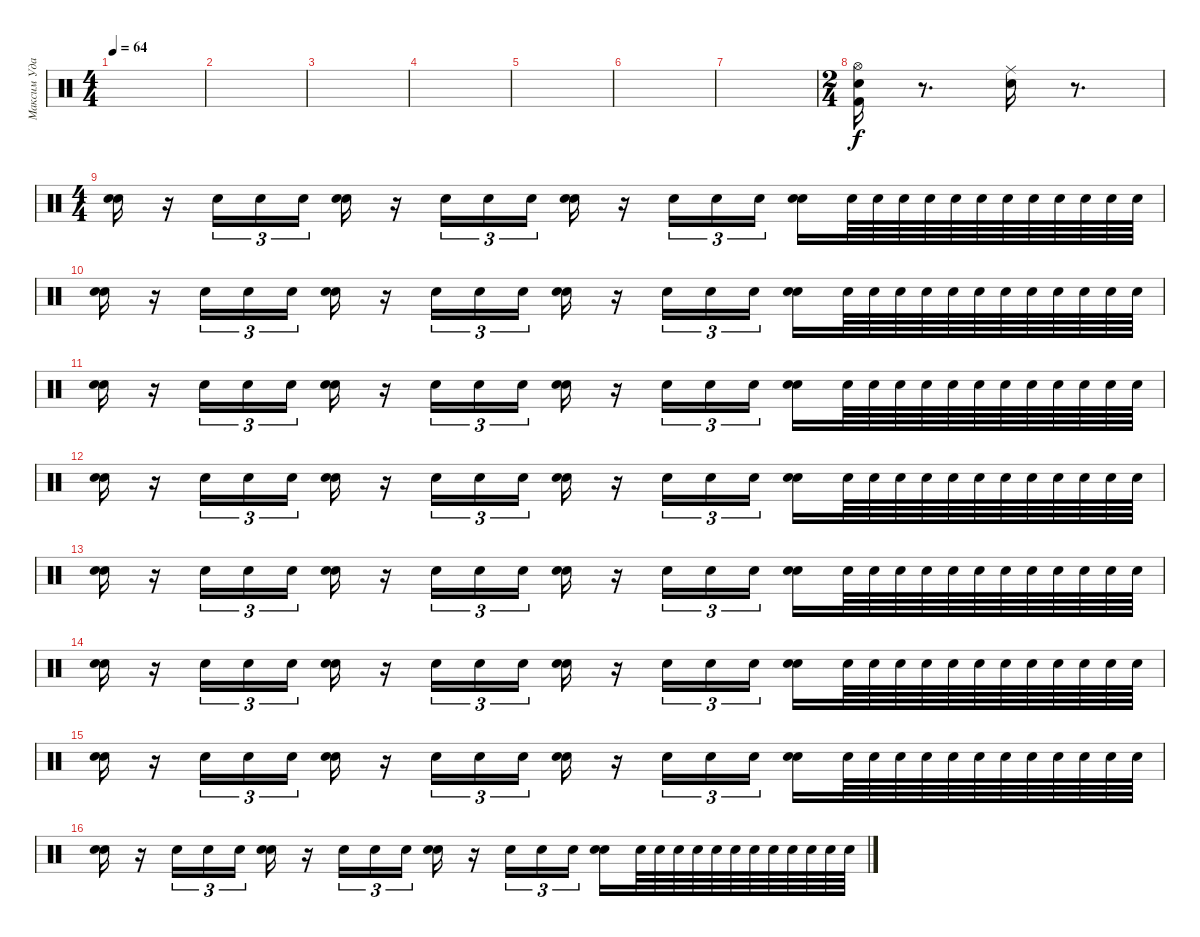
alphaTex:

\track ("Максим Удалов" "Максим Уда") {instrument percussion}
\staff {score}
\articulation defaults
\ts (4 4)
\tempo 64
\clef neutral
\ks c
|
|
|
|
|
|
|
\ts (2 4)
("Hi-Hat (open)" "Electric Snare (hit)" "Kick (hit) 2").16 r.8{d} ("Electric Snare (hit)" "Ride (middle)").16 r.8{d} |
\ts (4 4)
("Electric Snare (hit)" "Electric Snare (hit)").16 r.16 "Electric Snare (hit)".16{tu (3 2)} "Electric Snare (hit)".16{tu (3 2)} "Electric Snare (hit)".16{tu (3 2)} ("Electric Snare (hit)" "Electric Snare (hit)").16 r.16 "Electric Snare (hit)".16{tu (3 2)} "Electric Snare (hit)".16{tu (3 2)} "Electric Snare (hit)".16{tu (3 2)} ("Electric Snare (hit)" "Electric Snare (hit)").16 r.16 "Electric Snare (hit)".16{tu (3 2)} "Electric Snare (hit)".16{tu (3 2)} "Electric Snare (hit)".16{tu (3 2)} ("Electric Snare (hit)" "Electric Snare (hit)").16 "Snare (hit) 2".64 "Snare (hit) 2".64 "Snare (hit) 2".64 "Snare (hit) 2".64 "Snare (hit) 2".64 "Snare (hit) 2".64 "Snare (hit) 2".64 "Snare (hit) 2".64 "Snare (hit) 2".64 "Snare (hit) 2".64 "Snare (hit) 2".64 "Snare (hit) 2".64 |
("Electric Snare (hit)" "Electric Snare (hit)").16 r.16 "Electric Snare (hit)".16{tu (3 2)} "Electric Snare (hit)".16{tu (3 2)} "Electric Snare (hit)".16{tu (3 2)} ("Electric Snare (hit)" "Electric Snare (hit)").16 r.16 "Electric Snare (hit)".16{tu (3 2)} "Electric Snare (hit)".16{tu (3 2)} "Electric Snare (hit)".16{tu (3 2)} ("Electric Snare (hit)" "Electric Snare (hit)").16 r.16 "Electric Snare (hit)".16{tu (3 2)} "Electric Snare (hit)".16{tu (3 2)} "Electric Snare (hit)".16{tu (3 2)} ("Electric Snare (hit)" "Electric Snare (hit)").16 "Snare (hit) 2".64 "Snare (hit) 2".64 "Snare (hit) 2".64 "Snare (hit) 2".64 "Snare (hit) 2".64 "Snare (hit) 2".64 "Snare (hit) 2".64 "Snare (hit) 2".64 "Snare (hit) 2".64 "Snare (hit) 2".64 "Snare (hit) 2".64 "Snare (hit) 2".64 |
("Electric Snare (hit)" "Electric Snare (hit)").16 r.16 "Electric Snare (hit)".16{tu (3 2)} "Electric Snare (hit)".16{tu (3 2)} "Electric Snare (hit)".16{tu (3 2)} ("Electric Snare (hit)" "Electric Snare (hit)").16 r.16 "Electric Snare (hit)".16{tu (3 2)} "Electric Snare (hit)".16{tu (3 2)} "Electric Snare (hit)".16{tu (3 2)} ("Electric Snare (hit)" "Electric Snare (hit)").16 r.16 "Electric Snare (hit)".16{tu (3 2)} "Electric Snare (hit)".16{tu (3 2)} "Electric Snare (hit)".16{tu (3 2)} ("Electric Snare (hit)" "Electric Snare (hit)").16 "Snare (hit) 2".64 "Snare (hit) 2".64 "Snare (hit) 2".64 "Snare (hit) 2".64 "Snare (hit) 2".64 "Snare (hit) 2".64 "Snare (hit) 2".64 "Snare (hit) 2".64 "Snare (hit) 2".64 "Snare (hit) 2".64 "Snare (hit) 2".64 "Snare (hit) 2".64 |
("Electric Snare (hit)" "Electric Snare (hit)").16 r.16 "Electric Snare (hit)".16{tu (3 2)} "Electric Snare (hit)".16{tu (3 2)} "Electric Snare (hit)".16{tu (3 2)} ("Electric Snare (hit)" "Electric Snare (hit)").16 r.16 "Electric Snare (hit)".16{tu (3 2)} "Electric Snare (hit)".16{tu (3 2)} "Electric Snare (hit)".16{tu (3 2)} ("Electric Snare (hit)" "Electric Snare (hit)").16 r.16 "Electric Snare (hit)".16{tu (3 2)} "Electric Snare (hit)".16{tu (3 2)} "Electric Snare (hit)".16{tu (3 2)} ("Electric Snare (hit)" "Electric Snare (hit)").16 "Snare (hit) 2".64 "Snare (hit) 2".64 "Snare (hit) 2".64 "Snare (hit) 2".64 "Snare (hit) 2".64 "Snare (hit) 2".64 "Snare (hit) 2".64 "Snare (hit) 2".64 "Snare (hit) 2".64 "Snare (hit) 2".64 "Snare (hit) 2".64 "Snare (hit) 2".64 |
("Electric Snare (hit)" "Electric Snare (hit)").16 r.16 "Electric Snare (hit)".16{tu (3 2)} "Electric Snare (hit)".16{tu (3 2)} "Electric Snare (hit)".16{tu (3 2)} ("Electric Snare (hit)" "Electric Snare (hit)").16 r.16 "Electric Snare (hit)".16{tu (3 2)} "Electric Snare (hit)".16{tu (3 2)} "Electric Snare (hit)".16{tu (3 2)} ("Electric Snare (hit)" "Electric Snare (hit)").16 r.16 "Electric Snare (hit)".16{tu (3 2)} "Electric Snare (hit)".16{tu (3 2)} "Electric Snare (hit)".16{tu (3 2)} ("Electric Snare (hit)" "Electric Snare (hit)").16 "Snare (hit) 2".64 "Snare (hit) 2".64 "Snare (hit) 2".64 "Snare (hit) 2".64 "Snare (hit) 2".64 "Snare (hit) 2".64 "Snare (hit) 2".64 "Snare (hit) 2".64 "Snare (hit) 2".64 "Snare (hit) 2".64 "Snare (hit) 2".64 "Snare (hit) 2".64 |
("Electric Snare (hit)" "Electric Snare (hit)").16 r.16 "Electric Snare (hit)".16{tu (3 2)} "Electric Snare (hit)".16{tu (3 2)} "Electric Snare (hit)".16{tu (3 2)} ("Electric Snare (hit)" "Electric Snare (hit)").16 r.16 "Electric Snare (hit)".16{tu (3 2)} "Electric Snare (hit)".16{tu (3 2)} "Electric Snare (hit)".16{tu (3 2)} ("Electric Snare (hit)" "Electric Snare (hit)").16 r.16 "Electric Snare (hit)".16{tu (3 2)} "Electric Snare (hit)".16{tu (3 2)} "Electric Snare (hit)".16{tu (3 2)} ("Electric Snare (hit)" "Electric Snare (hit)").16 "Snare (hit) 2".64 "Snare (hit) 2".64 "Snare (hit) 2".64 "Snare (hit) 2".64 "Snare (hit) 2".64 "Snare (hit) 2".64 "Snare (hit) 2".64 "Snare (hit) 2".64 "Snare (hit) 2".64 "Snare (hit) 2".64 "Snare (hit) 2".64 "Snare (hit) 2".64 |
("Electric Snare (hit)" "Electric Snare (hit)").16 r.16 "Electric Snare (hit)".16{tu (3 2)} "Electric Snare (hit)".16{tu (3 2)} "Electric Snare (hit)".16{tu (3 2)} ("Electric Snare (hit)" "Electric Snare (hit)").16 r.16 "Electric Snare (hit)".16{tu (3 2)} "Electric Snare (hit)".16{tu (3 2)} "Electric Snare (hit)".16{tu (3 2)} ("Electric Snare (hit)" "Electric Snare (hit)").16 r.16 "Electric Snare (hit)".16{tu (3 2)} "Electric Snare (hit)".16{tu (3 2)} "Electric Snare (hit)".16{tu (3 2)} ("Electric Snare (hit)" "Electric Snare (hit)").16 "Snare (hit) 2".64 "Snare (hit) 2".64 "Snare (hit) 2".64 "Snare (hit) 2".64 "Snare (hit) 2".64 "Snare (hit) 2".64 "Snare (hit) 2".64 "Snare (hit) 2".64 "Snare (hit) 2".64 "Snare (hit) 2".64 "Snare (hit) 2".64 "Snare (hit) 2".64 |
("Electric Snare (hit)" "Electric Snare (hit)").16 r.16 "Electric Snare (hit)".16{tu (3 2)} "Electric Snare (hit)".16{tu (3 2)} "Electric Snare (hit)".16{tu (3 2)} ("Electric Snare (hit)" "Electric Snare (hit)").16 r.16 "Electric Snare (hit)".16{tu (3 2)} "Electric Snare (hit)".16{tu (3 2)} "Electric Snare (hit)".16{tu (3 2)} ("Electric Snare (hit)" "Electric Snare (hit)").16 r.16 "Electric Snare (hit)".16{tu (3 2)} "Electric Snare (hit)".16{tu (3 2)} "Electric Snare (hit)".16{tu (3 2)} ("Electric Snare (hit)" "Electric Snare (hit)").16 "Snare (hit) 2".64 "Snare (hit) 2".64 "Snare (hit) 2".64 "Snare (hit) 2".64 "Snare (hit) 2".64 "Snare (hit) 2".64 "Snare (hit) 2".64 "Snare (hit) 2".64 "Snare (hit) 2".64 "Snare (hit) 2".64 "Snare (hit) 2".64 "Snare (hit) 2".64
